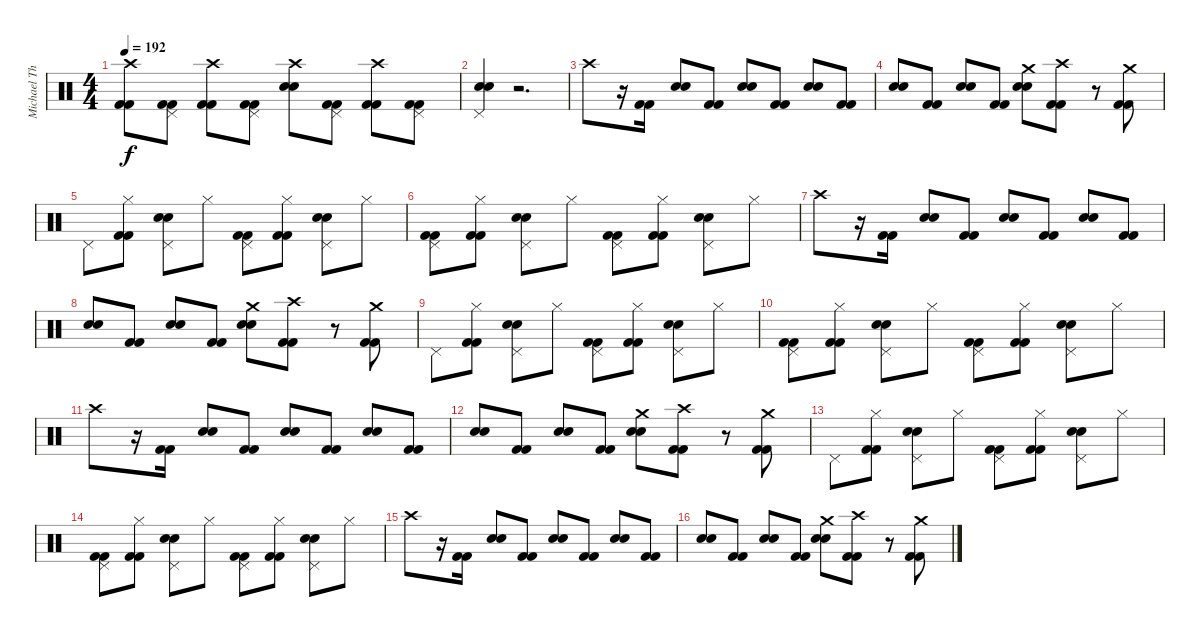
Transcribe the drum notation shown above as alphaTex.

\track ("Michael Thomas" "Michael Th") {instrument percussion}
\staff {score}
\articulation defaults
\ts (4 4)
\tempo 192
\clef neutral
\ks c
("Crash high (hit)" "Kick (hit) 2" "Kick (hit) 2").8{dy f} ("Pedal Hi-Hat (hit)" "Kick (hit) 2" "Kick (hit) 2").8 ("Crash high (hit)" "Kick (hit) 2" "Kick (hit) 2").8 ("Pedal Hi-Hat (hit)" "Kick (hit) 2" "Kick (hit) 2").8 ("Crash high (hit)" "Snare (hit) 2" "Electric Snare (hit)").8 ("Pedal Hi-Hat (hit)" "Kick (hit) 2" "Kick (hit) 2").8 ("Crash high (hit)" "Kick (hit) 2" "Kick (hit) 2").8 ("Pedal Hi-Hat (hit)" "Kick (hit) 2" "Kick (hit) 2").8 |
("Pedal Hi-Hat (hit)" "Snare (hit) 2" "Electric Snare (hit)").4 r.2{d} |
"Crash high (hit)".8 r.16 ("Kick (hit) 2" "Kick (hit) 2").16 ("Snare (hit) 2" "Electric Snare (hit)").8 ("Kick (hit) 2" "Kick (hit) 2").8 ("Snare (hit) 2" "Electric Snare (hit)").8 ("Kick (hit) 2" "Kick (hit) 2").8 ("Snare (hit) 2" "Electric Snare (hit)").8 ("Kick (hit) 2" "Kick (hit) 2").8 |
("Snare (hit) 2" "Electric Snare (hit)").8 ("Kick (hit) 2" "Kick (hit) 2").8 ("Snare (hit) 2" "Electric Snare (hit)").8 ("Kick (hit) 2" "Kick (hit) 2").8 ("Crash medium (hit)" "Snare (hit) 2" "Electric Snare (hit)").8 ("Crash high (hit)" "Kick (hit) 2" "Kick (hit) 2").8 r.8 ("Crash medium (hit)" "Kick (hit) 2" "Kick (hit) 2").8 |
"Pedal Hi-Hat (hit)".8 ("Hi-Hat (closed)" "Kick (hit) 2" "Kick (hit) 2").8 ("Pedal Hi-Hat (hit)" "Snare (hit) 2" "Electric Snare (hit)").8 "Hi-Hat (closed)".8 ("Pedal Hi-Hat (hit)" "Kick (hit) 2" "Kick (hit) 2").8 ("Hi-Hat (closed)" "Kick (hit) 2" "Kick (hit) 2").8 ("Pedal Hi-Hat (hit)" "Snare (hit) 2" "Electric Snare (hit)").8 "Hi-Hat (closed)".8 |
("Pedal Hi-Hat (hit)" "Kick (hit) 2" "Kick (hit) 2").8 ("Hi-Hat (closed)" "Kick (hit) 2" "Kick (hit) 2").8 ("Pedal Hi-Hat (hit)" "Snare (hit) 2" "Electric Snare (hit)").8 "Hi-Hat (closed)".8 ("Pedal Hi-Hat (hit)" "Kick (hit) 2" "Kick (hit) 2").8 ("Hi-Hat (closed)" "Kick (hit) 2" "Kick (hit) 2").8 ("Pedal Hi-Hat (hit)" "Snare (hit) 2" "Electric Snare (hit)").8 "Hi-Hat (closed)".8 |
"Crash high (hit)".8 r.16 ("Kick (hit) 2" "Kick (hit) 2").16 ("Snare (hit) 2" "Electric Snare (hit)").8 ("Kick (hit) 2" "Kick (hit) 2").8 ("Snare (hit) 2" "Electric Snare (hit)").8 ("Kick (hit) 2" "Kick (hit) 2").8 ("Snare (hit) 2" "Electric Snare (hit)").8 ("Kick (hit) 2" "Kick (hit) 2").8 |
("Snare (hit) 2" "Electric Snare (hit)").8 ("Kick (hit) 2" "Kick (hit) 2").8 ("Snare (hit) 2" "Electric Snare (hit)").8 ("Kick (hit) 2" "Kick (hit) 2").8 ("Crash medium (hit)" "Snare (hit) 2" "Electric Snare (hit)").8 ("Crash high (hit)" "Kick (hit) 2" "Kick (hit) 2").8 r.8 ("Crash medium (hit)" "Kick (hit) 2" "Kick (hit) 2").8 |
"Pedal Hi-Hat (hit)".8 ("Hi-Hat (closed)" "Kick (hit) 2" "Kick (hit) 2").8 ("Pedal Hi-Hat (hit)" "Snare (hit) 2" "Electric Snare (hit)").8 "Hi-Hat (closed)".8 ("Pedal Hi-Hat (hit)" "Kick (hit) 2" "Kick (hit) 2").8 ("Hi-Hat (closed)" "Kick (hit) 2" "Kick (hit) 2").8 ("Pedal Hi-Hat (hit)" "Snare (hit) 2" "Electric Snare (hit)").8 "Hi-Hat (closed)".8 |
("Pedal Hi-Hat (hit)" "Kick (hit) 2" "Kick (hit) 2").8 ("Hi-Hat (closed)" "Kick (hit) 2" "Kick (hit) 2").8 ("Pedal Hi-Hat (hit)" "Snare (hit) 2" "Electric Snare (hit)").8 "Hi-Hat (closed)".8 ("Pedal Hi-Hat (hit)" "Kick (hit) 2" "Kick (hit) 2").8 ("Hi-Hat (closed)" "Kick (hit) 2" "Kick (hit) 2").8 ("Pedal Hi-Hat (hit)" "Snare (hit) 2" "Electric Snare (hit)").8 "Hi-Hat (closed)".8 |
"Crash high (hit)".8 r.16 ("Kick (hit) 2" "Kick (hit) 2").16 ("Snare (hit) 2" "Electric Snare (hit)").8 ("Kick (hit) 2" "Kick (hit) 2").8 ("Snare (hit) 2" "Electric Snare (hit)").8 ("Kick (hit) 2" "Kick (hit) 2").8 ("Snare (hit) 2" "Electric Snare (hit)").8 ("Kick (hit) 2" "Kick (hit) 2").8 |
("Snare (hit) 2" "Electric Snare (hit)").8 ("Kick (hit) 2" "Kick (hit) 2").8 ("Snare (hit) 2" "Electric Snare (hit)").8 ("Kick (hit) 2" "Kick (hit) 2").8 ("Crash medium (hit)" "Snare (hit) 2" "Electric Snare (hit)").8 ("Crash high (hit)" "Kick (hit) 2" "Kick (hit) 2").8 r.8 ("Crash medium (hit)" "Kick (hit) 2" "Kick (hit) 2").8 |
"Pedal Hi-Hat (hit)".8 ("Hi-Hat (closed)" "Kick (hit) 2" "Kick (hit) 2").8 ("Pedal Hi-Hat (hit)" "Snare (hit) 2" "Electric Snare (hit)").8 "Hi-Hat (closed)".8 ("Pedal Hi-Hat (hit)" "Kick (hit) 2" "Kick (hit) 2").8 ("Hi-Hat (closed)" "Kick (hit) 2" "Kick (hit) 2").8 ("Pedal Hi-Hat (hit)" "Snare (hit) 2" "Electric Snare (hit)").8 "Hi-Hat (closed)".8 |
("Pedal Hi-Hat (hit)" "Kick (hit) 2" "Kick (hit) 2").8 ("Hi-Hat (closed)" "Kick (hit) 2" "Kick (hit) 2").8 ("Pedal Hi-Hat (hit)" "Snare (hit) 2" "Electric Snare (hit)").8 "Hi-Hat (closed)".8 ("Pedal Hi-Hat (hit)" "Kick (hit) 2" "Kick (hit) 2").8 ("Hi-Hat (closed)" "Kick (hit) 2" "Kick (hit) 2").8 ("Pedal Hi-Hat (hit)" "Snare (hit) 2" "Electric Snare (hit)").8 "Hi-Hat (closed)".8 |
"Crash high (hit)".8 r.16 ("Kick (hit) 2" "Kick (hit) 2").16 ("Snare (hit) 2" "Electric Snare (hit)").8 ("Kick (hit) 2" "Kick (hit) 2").8 ("Snare (hit) 2" "Electric Snare (hit)").8 ("Kick (hit) 2" "Kick (hit) 2").8 ("Snare (hit) 2" "Electric Snare (hit)").8 ("Kick (hit) 2" "Kick (hit) 2").8 |
("Snare (hit) 2" "Electric Snare (hit)").8 ("Kick (hit) 2" "Kick (hit) 2").8 ("Snare (hit) 2" "Electric Snare (hit)").8 ("Kick (hit) 2" "Kick (hit) 2").8 ("Crash medium (hit)" "Snare (hit) 2" "Electric Snare (hit)").8 ("Crash high (hit)" "Kick (hit) 2" "Kick (hit) 2").8 r.8 ("Crash medium (hit)" "Kick (hit) 2" "Kick (hit) 2").8
